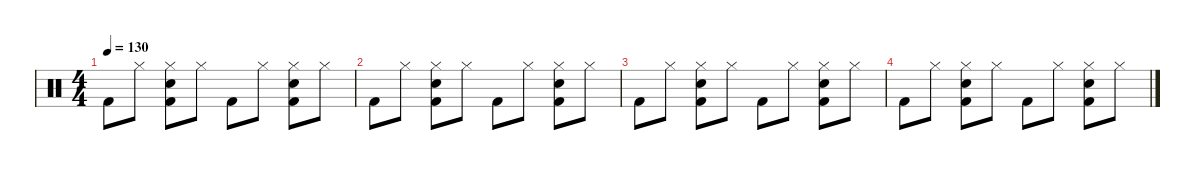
\defaultSystemsLayout 4
\hideDynamics
\bracketExtendMode nobrackets
\singleTrackTrackNamePolicy hidden
\multiTrackTrackNamePolicy hidden
\otherSystemsTrackNameOrientation horizontal
\track ("Percussion" "drm.") {defaultSystemsLayout 4 instrument percussion}
\staff {score}
\articulation defaults
\ts (4 4)
\tempo 130
\clef neutral
\ks c "Kick (hit) 2".8{dy f beam Down} "Hi-Hat (closed)".8{beam Down}
("Hi-Hat (closed)" "Snare (hit) 2" "Kick (hit) 2").8{beam Down} "Hi-Hat (closed)".8{beam Down} "Kick (hit) 2".8{beam Down} "Hi-Hat (closed)".8{beam Down} ("Hi-Hat (closed)" "Snare (hit) 2" "Kick (hit) 2").8{beam Down} "Hi-Hat (closed)".8{beam Down} |
"Kick (hit) 2".8{beam Down} "Hi-Hat (closed)".8{beam Down} ("Hi-Hat (closed)" "Snare (hit) 2" "Kick (hit) 2").8{beam Down} "Hi-Hat (closed)".8{beam Down} "Kick (hit) 2".8{beam Down} "Hi-Hat (closed)".8{beam Down} ("Hi-Hat (closed)" "Snare (hit) 2" "Kick (hit) 2").8{beam Down} "Hi-Hat (closed)".8{beam Down} |
"Kick (hit) 2".8{beam Down} "Hi-Hat (closed)".8{beam Down} ("Hi-Hat (closed)" "Snare (hit) 2" "Kick (hit) 2").8{beam Down} "Hi-Hat (closed)".8{beam Down} "Kick (hit) 2".8{beam Down} "Hi-Hat (closed)".8{beam Down} ("Hi-Hat (closed)" "Snare (hit) 2" "Kick (hit) 2").8{beam Down} "Hi-Hat (closed)".8{beam Down} |
"Kick (hit) 2".8{beam Down} "Hi-Hat (closed)".8{beam Down} ("Hi-Hat (closed)" "Snare (hit) 2" "Kick (hit) 2").8{beam Down} "Hi-Hat (closed)".8{beam Down} "Kick (hit) 2".8{beam Down} "Hi-Hat (closed)".8{beam Down} ("Hi-Hat (closed)" "Snare (hit) 2" "Kick (hit) 2").8{beam Down} "Hi-Hat (closed)".8{beam Down}
